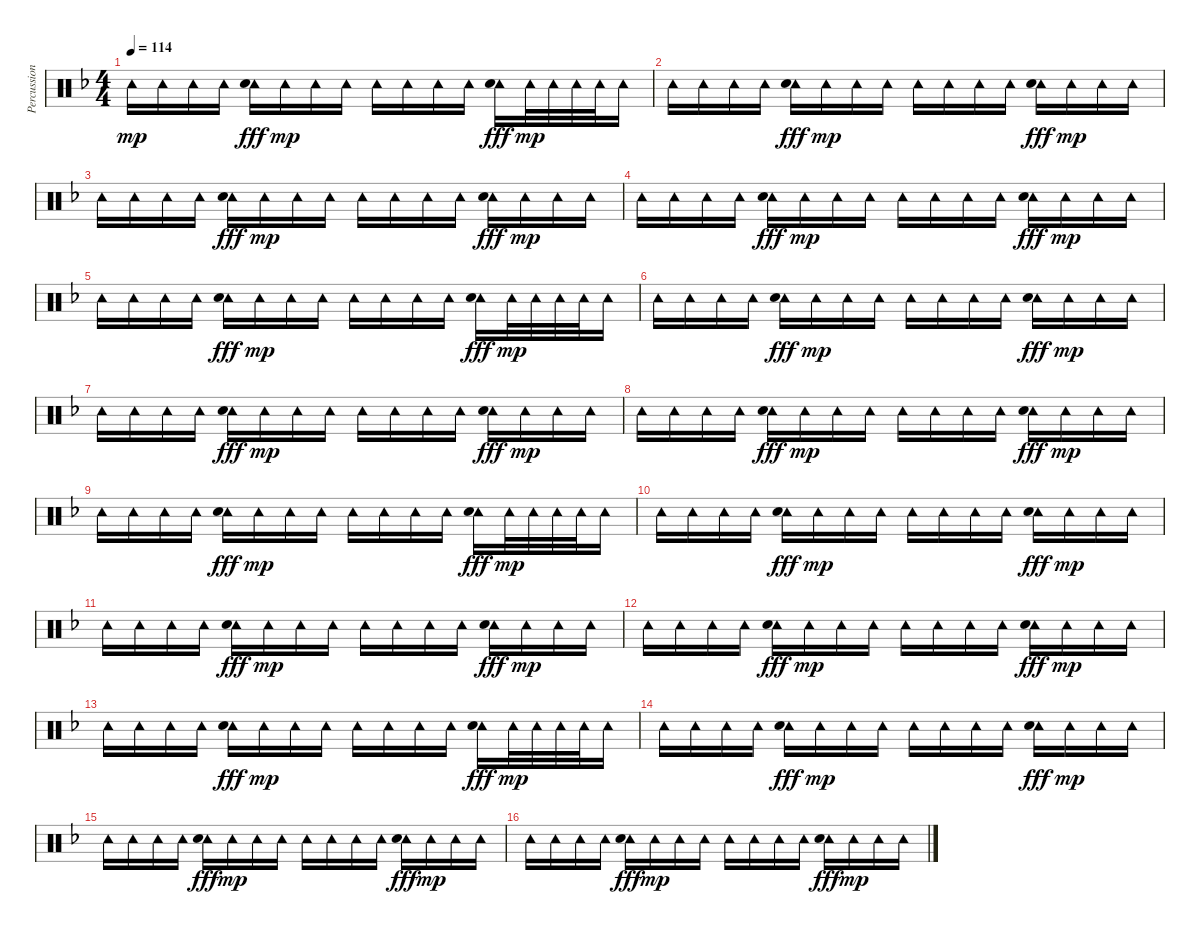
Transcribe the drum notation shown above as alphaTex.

\track ("Percussion" "Percussion") {instrument percussion}
\staff {score}
\articulation defaults
\ts (4 4)
\tempo 114
\clef neutral
\ks f "Tambourine (hit)".16{dy mp} "Tambourine (hit)".16 "Tambourine (hit)".16 "Tambourine (hit)".16
("Tambourine (hit)" "Hand Clap (hit)").16{dy fff} "Tambourine (hit)".16{dy mp} "Tambourine (hit)".16 "Tambourine (hit)".16 "Tambourine (hit)".16 "Tambourine (hit)".16 "Tambourine (hit)".16 "Tambourine (hit)".16 ("Tambourine (hit)" "Hand Clap (hit)").16{dy fff} "Tambourine (hit)".32{dy mp} "Tambourine (hit)".32 "Tambourine (hit)".32 "Tambourine (hit)".32 "Tambourine (hit)".16 |
"Tambourine (hit)".16 "Tambourine (hit)".16 "Tambourine (hit)".16 "Tambourine (hit)".16 ("Tambourine (hit)" "Hand Clap (hit)").16{dy fff} "Tambourine (hit)".16{dy mp} "Tambourine (hit)".16 "Tambourine (hit)".16 "Tambourine (hit)".16 "Tambourine (hit)".16 "Tambourine (hit)".16 "Tambourine (hit)".16 ("Tambourine (hit)" "Hand Clap (hit)").16{dy fff} "Tambourine (hit)".16{dy mp} "Tambourine (hit)".16 "Tambourine (hit)".16 |
"Tambourine (hit)".16 "Tambourine (hit)".16 "Tambourine (hit)".16 "Tambourine (hit)".16 ("Tambourine (hit)" "Hand Clap (hit)").16{dy fff} "Tambourine (hit)".16{dy mp} "Tambourine (hit)".16 "Tambourine (hit)".16 "Tambourine (hit)".16 "Tambourine (hit)".16 "Tambourine (hit)".16 "Tambourine (hit)".16 ("Tambourine (hit)" "Hand Clap (hit)").16{dy fff} "Tambourine (hit)".16{dy mp} "Tambourine (hit)".16 "Tambourine (hit)".16 |
"Tambourine (hit)".16 "Tambourine (hit)".16 "Tambourine (hit)".16 "Tambourine (hit)".16 ("Tambourine (hit)" "Hand Clap (hit)").16{dy fff} "Tambourine (hit)".16{dy mp} "Tambourine (hit)".16 "Tambourine (hit)".16 "Tambourine (hit)".16 "Tambourine (hit)".16 "Tambourine (hit)".16 "Tambourine (hit)".16 ("Tambourine (hit)" "Hand Clap (hit)").16{dy fff} "Tambourine (hit)".16{dy mp} "Tambourine (hit)".16 "Tambourine (hit)".16 |
"Tambourine (hit)".16 "Tambourine (hit)".16 "Tambourine (hit)".16 "Tambourine (hit)".16 ("Tambourine (hit)" "Hand Clap (hit)").16{dy fff} "Tambourine (hit)".16{dy mp} "Tambourine (hit)".16 "Tambourine (hit)".16 "Tambourine (hit)".16 "Tambourine (hit)".16 "Tambourine (hit)".16 "Tambourine (hit)".16 ("Tambourine (hit)" "Hand Clap (hit)").16{dy fff} "Tambourine (hit)".32{dy mp} "Tambourine (hit)".32 "Tambourine (hit)".32 "Tambourine (hit)".32 "Tambourine (hit)".16 |
"Tambourine (hit)".16 "Tambourine (hit)".16 "Tambourine (hit)".16 "Tambourine (hit)".16 ("Tambourine (hit)" "Hand Clap (hit)").16{dy fff} "Tambourine (hit)".16{dy mp} "Tambourine (hit)".16 "Tambourine (hit)".16 "Tambourine (hit)".16 "Tambourine (hit)".16 "Tambourine (hit)".16 "Tambourine (hit)".16 ("Tambourine (hit)" "Hand Clap (hit)").16{dy fff} "Tambourine (hit)".16{dy mp} "Tambourine (hit)".16 "Tambourine (hit)".16 |
"Tambourine (hit)".16 "Tambourine (hit)".16 "Tambourine (hit)".16 "Tambourine (hit)".16 ("Tambourine (hit)" "Hand Clap (hit)").16{dy fff} "Tambourine (hit)".16{dy mp} "Tambourine (hit)".16 "Tambourine (hit)".16 "Tambourine (hit)".16 "Tambourine (hit)".16 "Tambourine (hit)".16 "Tambourine (hit)".16 ("Tambourine (hit)" "Hand Clap (hit)").16{dy fff} "Tambourine (hit)".16{dy mp} "Tambourine (hit)".16 "Tambourine (hit)".16 |
"Tambourine (hit)".16 "Tambourine (hit)".16 "Tambourine (hit)".16 "Tambourine (hit)".16 ("Tambourine (hit)" "Hand Clap (hit)").16{dy fff} "Tambourine (hit)".16{dy mp} "Tambourine (hit)".16 "Tambourine (hit)".16 "Tambourine (hit)".16 "Tambourine (hit)".16 "Tambourine (hit)".16 "Tambourine (hit)".16 ("Tambourine (hit)" "Hand Clap (hit)").16{dy fff} "Tambourine (hit)".16{dy mp} "Tambourine (hit)".16 "Tambourine (hit)".16 |
"Tambourine (hit)".16 "Tambourine (hit)".16 "Tambourine (hit)".16 "Tambourine (hit)".16 ("Tambourine (hit)" "Hand Clap (hit)").16{dy fff} "Tambourine (hit)".16{dy mp} "Tambourine (hit)".16 "Tambourine (hit)".16 "Tambourine (hit)".16 "Tambourine (hit)".16 "Tambourine (hit)".16 "Tambourine (hit)".16 ("Tambourine (hit)" "Hand Clap (hit)").16{dy fff} "Tambourine (hit)".32{dy mp} "Tambourine (hit)".32 "Tambourine (hit)".32 "Tambourine (hit)".32 "Tambourine (hit)".16 |
"Tambourine (hit)".16 "Tambourine (hit)".16 "Tambourine (hit)".16 "Tambourine (hit)".16 ("Tambourine (hit)" "Hand Clap (hit)").16{dy fff} "Tambourine (hit)".16{dy mp} "Tambourine (hit)".16 "Tambourine (hit)".16 "Tambourine (hit)".16 "Tambourine (hit)".16 "Tambourine (hit)".16 "Tambourine (hit)".16 ("Tambourine (hit)" "Hand Clap (hit)").16{dy fff} "Tambourine (hit)".16{dy mp} "Tambourine (hit)".16 "Tambourine (hit)".16 |
"Tambourine (hit)".16 "Tambourine (hit)".16 "Tambourine (hit)".16 "Tambourine (hit)".16 ("Tambourine (hit)" "Hand Clap (hit)").16{dy fff} "Tambourine (hit)".16{dy mp} "Tambourine (hit)".16 "Tambourine (hit)".16 "Tambourine (hit)".16 "Tambourine (hit)".16 "Tambourine (hit)".16 "Tambourine (hit)".16 ("Tambourine (hit)" "Hand Clap (hit)").16{dy fff} "Tambourine (hit)".16{dy mp} "Tambourine (hit)".16 "Tambourine (hit)".16 |
"Tambourine (hit)".16 "Tambourine (hit)".16 "Tambourine (hit)".16 "Tambourine (hit)".16 ("Tambourine (hit)" "Hand Clap (hit)").16{dy fff} "Tambourine (hit)".16{dy mp} "Tambourine (hit)".16 "Tambourine (hit)".16 "Tambourine (hit)".16 "Tambourine (hit)".16 "Tambourine (hit)".16 "Tambourine (hit)".16 ("Tambourine (hit)" "Hand Clap (hit)").16{dy fff} "Tambourine (hit)".16{dy mp} "Tambourine (hit)".16 "Tambourine (hit)".16 |
"Tambourine (hit)".16 "Tambourine (hit)".16 "Tambourine (hit)".16 "Tambourine (hit)".16 ("Tambourine (hit)" "Hand Clap (hit)").16{dy fff} "Tambourine (hit)".16{dy mp} "Tambourine (hit)".16 "Tambourine (hit)".16 "Tambourine (hit)".16 "Tambourine (hit)".16 "Tambourine (hit)".16 "Tambourine (hit)".16 ("Tambourine (hit)" "Hand Clap (hit)").16{dy fff} "Tambourine (hit)".32{dy mp} "Tambourine (hit)".32 "Tambourine (hit)".32 "Tambourine (hit)".32 "Tambourine (hit)".16 |
"Tambourine (hit)".16 "Tambourine (hit)".16 "Tambourine (hit)".16 "Tambourine (hit)".16 ("Tambourine (hit)" "Hand Clap (hit)").16{dy fff} "Tambourine (hit)".16{dy mp} "Tambourine (hit)".16 "Tambourine (hit)".16 "Tambourine (hit)".16 "Tambourine (hit)".16 "Tambourine (hit)".16 "Tambourine (hit)".16 ("Tambourine (hit)" "Hand Clap (hit)").16{dy fff} "Tambourine (hit)".16{dy mp} "Tambourine (hit)".16 "Tambourine (hit)".16 |
"Tambourine (hit)".16 "Tambourine (hit)".16 "Tambourine (hit)".16 "Tambourine (hit)".16 ("Tambourine (hit)" "Hand Clap (hit)").16{dy fff} "Tambourine (hit)".16{dy mp} "Tambourine (hit)".16 "Tambourine (hit)".16 "Tambourine (hit)".16 "Tambourine (hit)".16 "Tambourine (hit)".16 "Tambourine (hit)".16 ("Tambourine (hit)" "Hand Clap (hit)").16{dy fff} "Tambourine (hit)".16{dy mp} "Tambourine (hit)".16 "Tambourine (hit)".16 |
"Tambourine (hit)".16 "Tambourine (hit)".16 "Tambourine (hit)".16 "Tambourine (hit)".16 ("Tambourine (hit)" "Hand Clap (hit)").16{dy fff} "Tambourine (hit)".16{dy mp} "Tambourine (hit)".16 "Tambourine (hit)".16 "Tambourine (hit)".16 "Tambourine (hit)".16 "Tambourine (hit)".16 "Tambourine (hit)".16 ("Tambourine (hit)" "Hand Clap (hit)").16{dy fff} "Tambourine (hit)".16{dy mp} "Tambourine (hit)".16 "Tambourine (hit)".16
